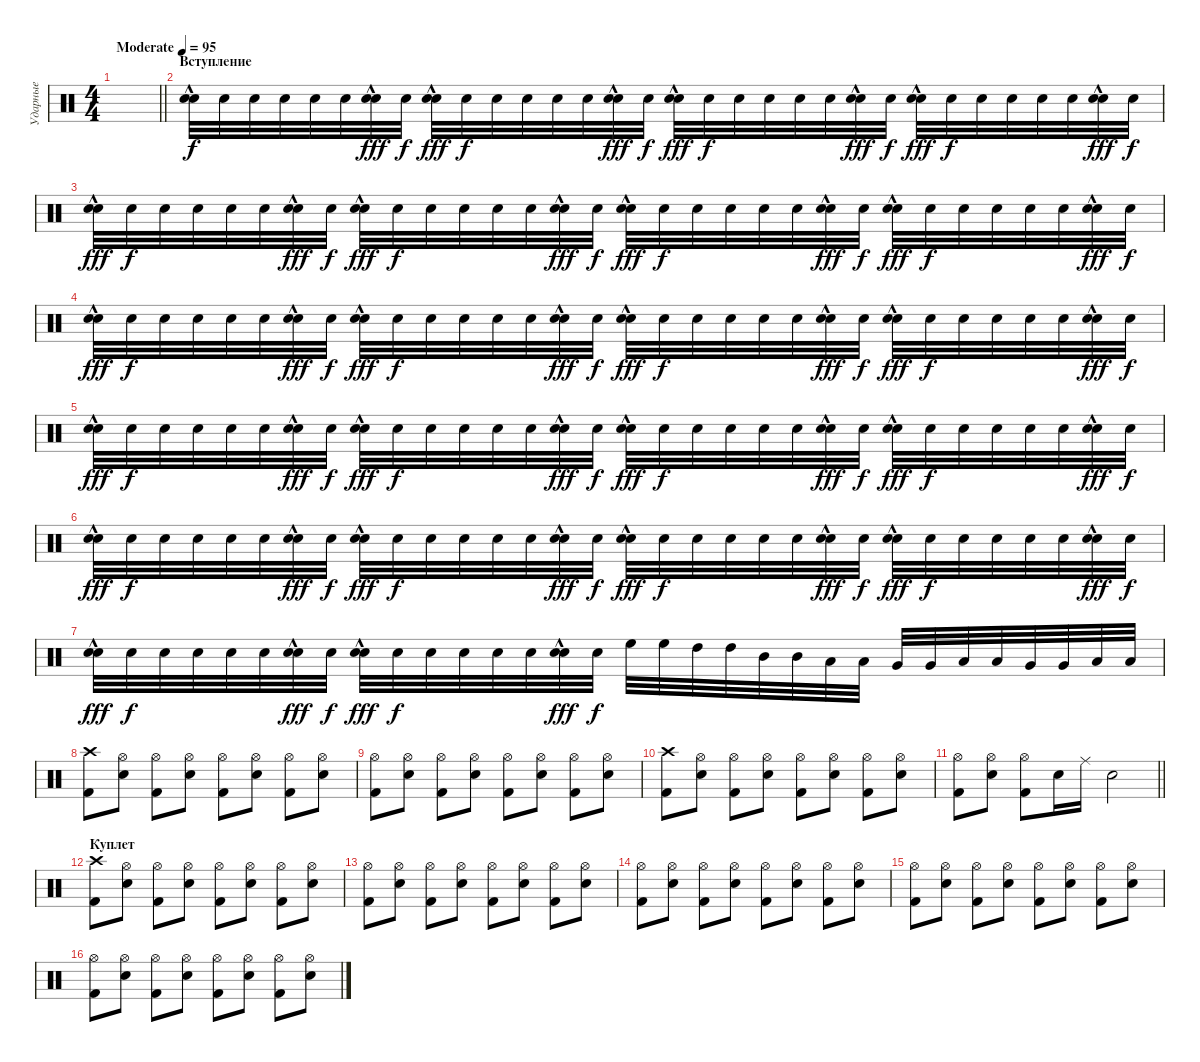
\track ("Ударные" "Ударные") {instrument percussion}
\staff {score}
\articulation defaults
\ts (4 4)
\tempo (95 "Moderate")
\clef neutral
\barLineRight lightlight
\ks c
|
\section ("" "Вступление")
("Snare (hit) 2"{hac} "Electric Snare (hit)").32 "Snare (hit) 2".32{dy f} "Snare (hit) 2".32 "Snare (hit) 2".32 "Snare (hit) 2".32 "Snare (hit) 2".32 ("Snare (hit) 2"{hac} "Electric Snare (hit)").32{dy fff} "Snare (hit) 2".32{dy f} ("Snare (hit) 2"{hac} "Electric Snare (hit)").32{dy fff} "Snare (hit) 2".32{dy f} "Snare (hit) 2".32 "Snare (hit) 2".32 "Snare (hit) 2".32 "Snare (hit) 2".32 ("Snare (hit) 2"{hac} "Electric Snare (hit)").32{dy fff} "Snare (hit) 2".32{dy f} ("Snare (hit) 2"{hac} "Electric Snare (hit)").32{dy fff} "Snare (hit) 2".32{dy f} "Snare (hit) 2".32 "Snare (hit) 2".32 "Snare (hit) 2".32 "Snare (hit) 2".32 ("Snare (hit) 2"{hac} "Electric Snare (hit)").32{dy fff} "Snare (hit) 2".32{dy f} ("Snare (hit) 2"{hac} "Electric Snare (hit)").32{dy fff} "Snare (hit) 2".32{dy f} "Snare (hit) 2".32 "Snare (hit) 2".32 "Snare (hit) 2".32 "Snare (hit) 2".32 ("Snare (hit) 2"{hac} "Electric Snare (hit)").32{dy fff} "Snare (hit) 2".32{dy f} |
("Snare (hit) 2"{hac} "Electric Snare (hit)").32{dy fff} "Snare (hit) 2".32{dy f} "Snare (hit) 2".32 "Snare (hit) 2".32 "Snare (hit) 2".32 "Snare (hit) 2".32 ("Snare (hit) 2"{hac} "Electric Snare (hit)").32{dy fff} "Snare (hit) 2".32{dy f} ("Snare (hit) 2"{hac} "Electric Snare (hit)").32{dy fff} "Snare (hit) 2".32{dy f} "Snare (hit) 2".32 "Snare (hit) 2".32 "Snare (hit) 2".32 "Snare (hit) 2".32 ("Snare (hit) 2"{hac} "Electric Snare (hit)").32{dy fff} "Snare (hit) 2".32{dy f} ("Snare (hit) 2"{hac} "Electric Snare (hit)").32{dy fff} "Snare (hit) 2".32{dy f} "Snare (hit) 2".32 "Snare (hit) 2".32 "Snare (hit) 2".32 "Snare (hit) 2".32 ("Snare (hit) 2"{hac} "Electric Snare (hit)").32{dy fff} "Snare (hit) 2".32{dy f} ("Snare (hit) 2"{hac} "Electric Snare (hit)").32{dy fff} "Snare (hit) 2".32{dy f} "Snare (hit) 2".32 "Snare (hit) 2".32 "Snare (hit) 2".32 "Snare (hit) 2".32 ("Snare (hit) 2"{hac} "Electric Snare (hit)").32{dy fff} "Snare (hit) 2".32{dy f} |
("Snare (hit) 2"{hac} "Electric Snare (hit)").32{dy fff} "Snare (hit) 2".32{dy f} "Snare (hit) 2".32 "Snare (hit) 2".32 "Snare (hit) 2".32 "Snare (hit) 2".32 ("Snare (hit) 2"{hac} "Electric Snare (hit)").32{dy fff} "Snare (hit) 2".32{dy f} ("Snare (hit) 2"{hac} "Electric Snare (hit)").32{dy fff} "Snare (hit) 2".32{dy f} "Snare (hit) 2".32 "Snare (hit) 2".32 "Snare (hit) 2".32 "Snare (hit) 2".32 ("Snare (hit) 2"{hac} "Electric Snare (hit)").32{dy fff} "Snare (hit) 2".32{dy f} ("Snare (hit) 2"{hac} "Electric Snare (hit)").32{dy fff} "Snare (hit) 2".32{dy f} "Snare (hit) 2".32 "Snare (hit) 2".32 "Snare (hit) 2".32 "Snare (hit) 2".32 ("Snare (hit) 2"{hac} "Electric Snare (hit)").32{dy fff} "Snare (hit) 2".32{dy f} ("Snare (hit) 2"{hac} "Electric Snare (hit)").32{dy fff} "Snare (hit) 2".32{dy f} "Snare (hit) 2".32 "Snare (hit) 2".32 "Snare (hit) 2".32 "Snare (hit) 2".32 ("Snare (hit) 2"{hac} "Electric Snare (hit)").32{dy fff} "Snare (hit) 2".32{dy f} |
("Snare (hit) 2"{hac} "Electric Snare (hit)").32{dy fff} "Snare (hit) 2".32{dy f} "Snare (hit) 2".32 "Snare (hit) 2".32 "Snare (hit) 2".32 "Snare (hit) 2".32 ("Snare (hit) 2"{hac} "Electric Snare (hit)").32{dy fff} "Snare (hit) 2".32{dy f} ("Snare (hit) 2"{hac} "Electric Snare (hit)").32{dy fff} "Snare (hit) 2".32{dy f} "Snare (hit) 2".32 "Snare (hit) 2".32 "Snare (hit) 2".32 "Snare (hit) 2".32 ("Snare (hit) 2"{hac} "Electric Snare (hit)").32{dy fff} "Snare (hit) 2".32{dy f} ("Snare (hit) 2"{hac} "Electric Snare (hit)").32{dy fff} "Snare (hit) 2".32{dy f} "Snare (hit) 2".32 "Snare (hit) 2".32 "Snare (hit) 2".32 "Snare (hit) 2".32 ("Snare (hit) 2"{hac} "Electric Snare (hit)").32{dy fff} "Snare (hit) 2".32{dy f} ("Snare (hit) 2"{hac} "Electric Snare (hit)").32{dy fff} "Snare (hit) 2".32{dy f} "Snare (hit) 2".32 "Snare (hit) 2".32 "Snare (hit) 2".32 "Snare (hit) 2".32 ("Snare (hit) 2"{hac} "Electric Snare (hit)").32{dy fff} "Snare (hit) 2".32{dy f} |
("Snare (hit) 2"{hac} "Electric Snare (hit)").32{dy fff} "Snare (hit) 2".32{dy f} "Snare (hit) 2".32 "Snare (hit) 2".32 "Snare (hit) 2".32 "Snare (hit) 2".32 ("Snare (hit) 2"{hac} "Electric Snare (hit)").32{dy fff} "Snare (hit) 2".32{dy f} ("Snare (hit) 2"{hac} "Electric Snare (hit)").32{dy fff} "Snare (hit) 2".32{dy f} "Snare (hit) 2".32 "Snare (hit) 2".32 "Snare (hit) 2".32 "Snare (hit) 2".32 ("Snare (hit) 2"{hac} "Electric Snare (hit)").32{dy fff} "Snare (hit) 2".32{dy f} ("Snare (hit) 2"{hac} "Electric Snare (hit)").32{dy fff} "Snare (hit) 2".32{dy f} "Snare (hit) 2".32 "Snare (hit) 2".32 "Snare (hit) 2".32 "Snare (hit) 2".32 ("Snare (hit) 2"{hac} "Electric Snare (hit)").32{dy fff} "Snare (hit) 2".32{dy f} ("Snare (hit) 2"{hac} "Electric Snare (hit)").32{dy fff} "Snare (hit) 2".32{dy f} "Snare (hit) 2".32 "Snare (hit) 2".32 "Snare (hit) 2".32 "Snare (hit) 2".32 ("Snare (hit) 2"{hac} "Electric Snare (hit)").32{dy fff} "Snare (hit) 2".32{dy f} |
("Snare (hit) 2"{hac} "Electric Snare (hit)").32{dy fff} "Snare (hit) 2".32{dy f} "Snare (hit) 2".32 "Snare (hit) 2".32 "Snare (hit) 2".32 "Snare (hit) 2".32 ("Snare (hit) 2"{hac} "Electric Snare (hit)").32{dy fff} "Snare (hit) 2".32{dy f} ("Snare (hit) 2"{hac} "Electric Snare (hit)").32{dy fff} "Snare (hit) 2".32{dy f} "Snare (hit) 2".32 "Snare (hit) 2".32 "Snare (hit) 2".32 "Snare (hit) 2".32 ("Snare (hit) 2"{hac} "Electric Snare (hit)").32{dy fff} "Snare (hit) 2".32{dy f} "High Floor Tom (hit)".32 "High Floor Tom (hit)".32 "High Tom (hit)".32 "High Tom (hit)".32 "Mid Tom (hit)".32 "Mid Tom (hit)".32 "Low Tom (hit)".32 "Low Tom (hit)".32 "Very Low Tom (hit)".32 "Very Low Tom (hit)".32 "Low Floor Tom (hit)".32 "Low Floor Tom (hit)".32 "Very Low Tom (hit)".32 "Very Low Tom (hit)".32 "Low Floor Tom (hit)".32 "Low Floor Tom (hit)".32 |
("Kick (hit) 2" "Crash high (hit)").8 ("Electric Snare (hit)" "Hi-Hat (open)").8 ("Kick (hit) 2" "Hi-Hat (open)").8 ("Electric Snare (hit)" "Hi-Hat (open)").8 ("Kick (hit) 2" "Hi-Hat (open)").8 ("Electric Snare (hit)" "Hi-Hat (open)").8 ("Kick (hit) 2" "Hi-Hat (open)").8 ("Electric Snare (hit)" "Hi-Hat (open)").8 |
("Kick (hit) 2" "Hi-Hat (open)").8 ("Electric Snare (hit)" "Hi-Hat (open)").8 ("Kick (hit) 2" "Hi-Hat (open)").8 ("Electric Snare (hit)" "Hi-Hat (open)").8 ("Kick (hit) 2" "Hi-Hat (open)").8 ("Electric Snare (hit)" "Hi-Hat (open)").8 ("Kick (hit) 2" "Hi-Hat (open)").8 ("Electric Snare (hit)" "Hi-Hat (open)").8 |
("Kick (hit) 2" "Crash high (hit)").8 ("Electric Snare (hit)" "Hi-Hat (open)").8 ("Kick (hit) 2" "Hi-Hat (open)").8 ("Electric Snare (hit)" "Hi-Hat (open)").8 ("Kick (hit) 2" "Hi-Hat (open)").8 ("Electric Snare (hit)" "Hi-Hat (open)").8 ("Kick (hit) 2" "Hi-Hat (open)").8 ("Electric Snare (hit)" "Hi-Hat (open)").8 |
\barLineRight lightlight
("Kick (hit) 2" "Hi-Hat (open)").8 ("Electric Snare (hit)" "Hi-Hat (open)").8 ("Kick (hit) 2" "Hi-Hat (open)").8 "Electric Snare (hit)".16 "Ride (middle)".16 "Electric Snare (hit)".2 |
\section ("" "Куплет")
("Kick (hit) 2" "Crash high (hit)").8 ("Electric Snare (hit)" "Hi-Hat (open)").8 ("Kick (hit) 2" "Hi-Hat (open)").8 ("Electric Snare (hit)" "Hi-Hat (open)").8 ("Kick (hit) 2" "Hi-Hat (open)").8 ("Electric Snare (hit)" "Hi-Hat (open)").8 ("Kick (hit) 2" "Hi-Hat (open)").8 ("Electric Snare (hit)" "Hi-Hat (open)").8 |
("Kick (hit) 2" "Hi-Hat (open)").8 ("Electric Snare (hit)" "Hi-Hat (open)").8 ("Kick (hit) 2" "Hi-Hat (open)").8 ("Electric Snare (hit)" "Hi-Hat (open)").8 ("Kick (hit) 2" "Hi-Hat (open)").8 ("Electric Snare (hit)" "Hi-Hat (open)").8 ("Kick (hit) 2" "Hi-Hat (open)").8 ("Electric Snare (hit)" "Hi-Hat (open)").8 |
("Kick (hit) 2" "Hi-Hat (open)").8 ("Electric Snare (hit)" "Hi-Hat (open)").8 ("Kick (hit) 2" "Hi-Hat (open)").8 ("Electric Snare (hit)" "Hi-Hat (open)").8 ("Kick (hit) 2" "Hi-Hat (open)").8 ("Electric Snare (hit)" "Hi-Hat (open)").8 ("Kick (hit) 2" "Hi-Hat (open)").8 ("Electric Snare (hit)" "Hi-Hat (open)").8 |
("Kick (hit) 2" "Hi-Hat (open)").8 ("Electric Snare (hit)" "Hi-Hat (open)").8 ("Kick (hit) 2" "Hi-Hat (open)").8 ("Electric Snare (hit)" "Hi-Hat (open)").8 ("Kick (hit) 2" "Hi-Hat (open)").8 ("Electric Snare (hit)" "Hi-Hat (open)").8 ("Kick (hit) 2" "Hi-Hat (open)").8 ("Electric Snare (hit)" "Hi-Hat (open)").8 |
("Kick (hit) 2" "Hi-Hat (open)").8 ("Electric Snare (hit)" "Hi-Hat (open)").8 ("Kick (hit) 2" "Hi-Hat (open)").8 ("Electric Snare (hit)" "Hi-Hat (open)").8 ("Kick (hit) 2" "Hi-Hat (open)").8 ("Electric Snare (hit)" "Hi-Hat (open)").8 ("Kick (hit) 2" "Hi-Hat (open)").8 ("Electric Snare (hit)" "Hi-Hat (open)").8
